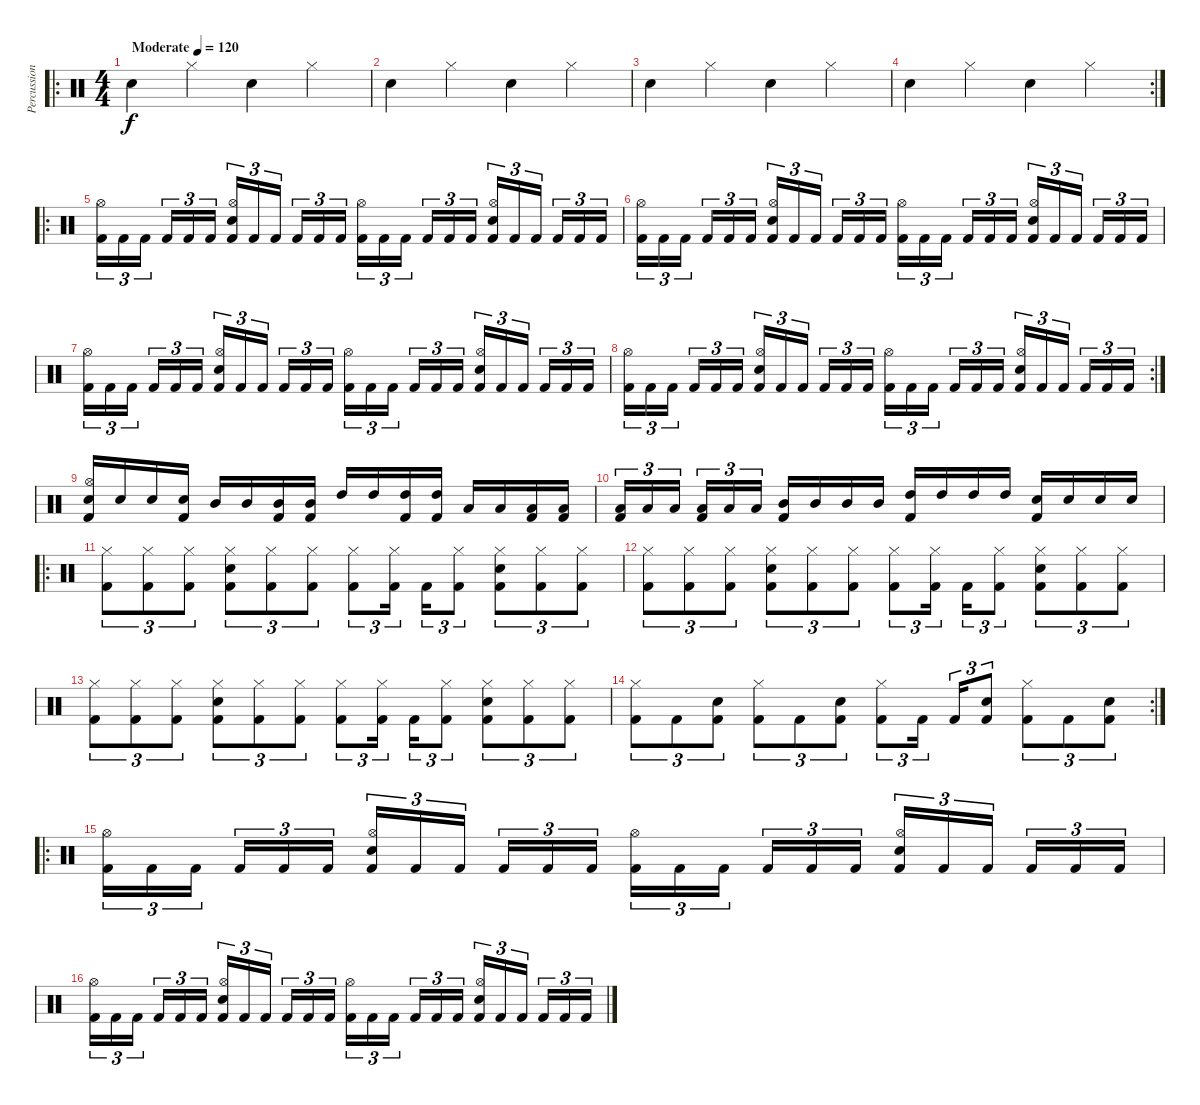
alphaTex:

\track ("Percussion" "Percussion") {instrument percussion}
\staff {score}
\articulation defaults
\ro
\ts (4 4)
\tempo (120 "Moderate")
\clef neutral
\ks c "Metronome (bell)".4{dy f} "Hi-Hat (closed)".4 "Metronome (bell)".4 "Hi-Hat (closed)".4
|
"Metronome (bell)".4 "Hi-Hat (closed)".4 "Metronome (bell)".4 "Hi-Hat (closed)".4 |
"Metronome (bell)".4 "Hi-Hat (closed)".4 "Metronome (bell)".4 "Hi-Hat (closed)".4 |
\rc 2 "Metronome (bell)".4 "Hi-Hat (closed)".4 "Metronome (bell)".4 "Hi-Hat (closed)".4
|
\ro
("Kick (hit) 2" "Hi-Hat (open)").16{tu (3 2)} "Kick (hit) 2".16{tu (3 2)} "Kick (hit) 2".16{tu (3 2) beam splitsecondary} "Kick (hit) 2".16{tu (3 2)} "Kick (hit) 2".16{tu (3 2)} "Kick (hit) 2".16{tu (3 2)} ("Kick (hit) 2" "Hi-Hat (open)" "Snare (hit) 2").16{tu (3 2)} "Kick (hit) 2".16{tu (3 2)} "Kick (hit) 2".16{tu (3 2) beam splitsecondary} "Kick (hit) 2".16{tu (3 2)} "Kick (hit) 2".16{tu (3 2)} "Kick (hit) 2".16{tu (3 2)} ("Kick (hit) 2" "Hi-Hat (open)").16{tu (3 2)} "Kick (hit) 2".16{tu (3 2)} "Kick (hit) 2".16{tu (3 2) beam splitsecondary} "Kick (hit) 2".16{tu (3 2)} "Kick (hit) 2".16{tu (3 2)} "Kick (hit) 2".16{tu (3 2)} ("Kick (hit) 2" "Hi-Hat (open)" "Snare (hit) 2").16{tu (3 2)} "Kick (hit) 2".16{tu (3 2)} "Kick (hit) 2".16{tu (3 2) beam splitsecondary} "Kick (hit) 2".16{tu (3 2)} "Kick (hit) 2".16{tu (3 2)} "Kick (hit) 2".16{tu (3 2)} |
("Kick (hit) 2" "Hi-Hat (open)").16{tu (3 2)} "Kick (hit) 2".16{tu (3 2)} "Kick (hit) 2".16{tu (3 2) beam splitsecondary} "Kick (hit) 2".16{tu (3 2)} "Kick (hit) 2".16{tu (3 2)} "Kick (hit) 2".16{tu (3 2)} ("Kick (hit) 2" "Hi-Hat (open)" "Snare (hit) 2").16{tu (3 2)} "Kick (hit) 2".16{tu (3 2)} "Kick (hit) 2".16{tu (3 2) beam splitsecondary} "Kick (hit) 2".16{tu (3 2)} "Kick (hit) 2".16{tu (3 2)} "Kick (hit) 2".16{tu (3 2)} ("Kick (hit) 2" "Hi-Hat (open)").16{tu (3 2)} "Kick (hit) 2".16{tu (3 2)} "Kick (hit) 2".16{tu (3 2) beam splitsecondary} "Kick (hit) 2".16{tu (3 2)} "Kick (hit) 2".16{tu (3 2)} "Kick (hit) 2".16{tu (3 2)} ("Kick (hit) 2" "Hi-Hat (open)" "Snare (hit) 2").16{tu (3 2)} "Kick (hit) 2".16{tu (3 2)} "Kick (hit) 2".16{tu (3 2) beam splitsecondary} "Kick (hit) 2".16{tu (3 2)} "Kick (hit) 2".16{tu (3 2)} "Kick (hit) 2".16{tu (3 2)} |
("Kick (hit) 2" "Hi-Hat (open)").16{tu (3 2)} "Kick (hit) 2".16{tu (3 2)} "Kick (hit) 2".16{tu (3 2) beam splitsecondary} "Kick (hit) 2".16{tu (3 2)} "Kick (hit) 2".16{tu (3 2)} "Kick (hit) 2".16{tu (3 2)} ("Kick (hit) 2" "Hi-Hat (open)" "Snare (hit) 2").16{tu (3 2)} "Kick (hit) 2".16{tu (3 2)} "Kick (hit) 2".16{tu (3 2) beam splitsecondary} "Kick (hit) 2".16{tu (3 2)} "Kick (hit) 2".16{tu (3 2)} "Kick (hit) 2".16{tu (3 2)} ("Kick (hit) 2" "Hi-Hat (open)").16{tu (3 2)} "Kick (hit) 2".16{tu (3 2)} "Kick (hit) 2".16{tu (3 2) beam splitsecondary} "Kick (hit) 2".16{tu (3 2)} "Kick (hit) 2".16{tu (3 2)} "Kick (hit) 2".16{tu (3 2)} ("Kick (hit) 2" "Hi-Hat (open)" "Snare (hit) 2").16{tu (3 2)} "Kick (hit) 2".16{tu (3 2)} "Kick (hit) 2".16{tu (3 2) beam splitsecondary} "Kick (hit) 2".16{tu (3 2)} "Kick (hit) 2".16{tu (3 2)} "Kick (hit) 2".16{tu (3 2)} |
\rc 2
("Kick (hit) 2" "Hi-Hat (open)").16{tu (3 2)} "Kick (hit) 2".16{tu (3 2)} "Kick (hit) 2".16{tu (3 2) beam splitsecondary} "Kick (hit) 2".16{tu (3 2)} "Kick (hit) 2".16{tu (3 2)} "Kick (hit) 2".16{tu (3 2)} ("Kick (hit) 2" "Hi-Hat (open)" "Snare (hit) 2").16{tu (3 2)} "Kick (hit) 2".16{tu (3 2)} "Kick (hit) 2".16{tu (3 2) beam splitsecondary} "Kick (hit) 2".16{tu (3 2)} "Kick (hit) 2".16{tu (3 2)} "Kick (hit) 2".16{tu (3 2)} ("Kick (hit) 2" "Hi-Hat (open)").16{tu (3 2)} "Kick (hit) 2".16{tu (3 2)} "Kick (hit) 2".16{tu (3 2) beam splitsecondary} "Kick (hit) 2".16{tu (3 2)} "Kick (hit) 2".16{tu (3 2)} "Kick (hit) 2".16{tu (3 2)} ("Kick (hit) 2" "Hi-Hat (open)" "Snare (hit) 2").16{tu (3 2)} "Kick (hit) 2".16{tu (3 2)} "Kick (hit) 2".16{tu (3 2) beam splitsecondary} "Kick (hit) 2".16{tu (3 2)} "Kick (hit) 2".16{tu (3 2)} "Kick (hit) 2".16{tu (3 2)} |
("Snare (hit) 2" "Hi-Hat (open)" "Kick (hit) 2").16 "Snare (hit) 2".16 "Snare (hit) 2".16 ("Snare (hit) 2" "Kick (hit) 2").16 "Mid Tom (hit)".16 "Mid Tom (hit)".16 ("Mid Tom (hit)" "Kick (hit) 2").16 ("Mid Tom (hit)" "Kick (hit) 2").16 "High Tom (hit)".16 "High Tom (hit)".16 ("High Tom (hit)" "Kick (hit) 2").16 ("High Tom (hit)" "Kick (hit) 2").16 "Low Floor Tom (hit)".16 "Low Floor Tom (hit)".16 ("Low Floor Tom (hit)" "Kick (hit) 2").16 ("Low Floor Tom (hit)" "Kick (hit) 2").16 |
("Low Floor Tom (hit)" "Kick (hit) 2").16{tu (3 2)} "Low Floor Tom (hit)".16{tu (3 2)} "Low Floor Tom (hit)".16{tu (3 2) beam splitsecondary} ("Low Floor Tom (hit)" "Kick (hit) 2").16{tu (3 2)} "Low Floor Tom (hit)".16{tu (3 2)} "Low Floor Tom (hit)".16{tu (3 2)} ("Mid Tom (hit)" "Kick (hit) 2").16 "Mid Tom (hit)".16 "Mid Tom (hit)".16 "Mid Tom (hit)".16 ("High Tom (hit)" "Kick (hit) 2").16 "High Tom (hit)".16 "High Tom (hit)".16 "High Tom (hit)".16 ("Snare (hit) 2" "Kick (hit) 2").16 "Snare (hit) 2".16 "Snare (hit) 2".16 "Snare (hit) 2".16 |
\ro
("Kick (hit) 2" "Hi-Hat (closed)").8{tu (3 2)} ("Kick (hit) 2" "Hi-Hat (closed)").8{tu (3 2)} ("Kick (hit) 2" "Hi-Hat (closed)").8{tu (3 2)} ("Kick (hit) 2" "Snare (hit) 2" "Hi-Hat (closed)").8{tu (3 2)} ("Kick (hit) 2" "Hi-Hat (closed)").8{tu (3 2)} ("Kick (hit) 2" "Hi-Hat (closed)").8{tu (3 2)} ("Kick (hit) 2" "Hi-Hat (closed)").8{tu (3 2)} ("Kick (hit) 2" "Hi-Hat (closed)").16{tu (3 2) beam splitsecondary} "Kick (hit) 2".16{tu (3 2)} ("Kick (hit) 2" "Hi-Hat (closed)").8{tu (3 2)} ("Kick (hit) 2" "Snare (hit) 2" "Hi-Hat (closed)").8{tu (3 2)} ("Kick (hit) 2" "Hi-Hat (closed)").8{tu (3 2)} ("Kick (hit) 2" "Hi-Hat (closed)").8{tu (3 2)} |
("Kick (hit) 2" "Hi-Hat (closed)").8{tu (3 2)} ("Kick (hit) 2" "Hi-Hat (closed)").8{tu (3 2)} ("Kick (hit) 2" "Hi-Hat (closed)").8{tu (3 2)} ("Kick (hit) 2" "Hi-Hat (closed)" "Snare (hit) 2").8{tu (3 2)} ("Kick (hit) 2" "Hi-Hat (closed)").8{tu (3 2)} ("Kick (hit) 2" "Hi-Hat (closed)").8{tu (3 2)} ("Kick (hit) 2" "Hi-Hat (closed)").8{tu (3 2)} ("Kick (hit) 2" "Hi-Hat (closed)").16{tu (3 2) beam splitsecondary} "Kick (hit) 2".16{tu (3 2)} ("Kick (hit) 2" "Hi-Hat (closed)").8{tu (3 2)} ("Kick (hit) 2" "Hi-Hat (closed)" "Snare (hit) 2").8{tu (3 2)} ("Kick (hit) 2" "Hi-Hat (closed)").8{tu (3 2)} ("Kick (hit) 2" "Hi-Hat (closed)").8{tu (3 2)} |
("Kick (hit) 2" "Hi-Hat (closed)").8{tu (3 2)} ("Kick (hit) 2" "Hi-Hat (closed)").8{tu (3 2)} ("Kick (hit) 2" "Hi-Hat (closed)").8{tu (3 2)} ("Kick (hit) 2" "Snare (hit) 2" "Hi-Hat (closed)").8{tu (3 2)} ("Kick (hit) 2" "Hi-Hat (closed)").8{tu (3 2)} ("Kick (hit) 2" "Hi-Hat (closed)").8{tu (3 2)} ("Kick (hit) 2" "Hi-Hat (closed)").8{tu (3 2)} ("Kick (hit) 2" "Hi-Hat (closed)").16{tu (3 2) beam splitsecondary} "Kick (hit) 2".16{tu (3 2)} ("Kick (hit) 2" "Hi-Hat (closed)").8{tu (3 2)} ("Kick (hit) 2" "Hi-Hat (closed)" "Snare (hit) 2").8{tu (3 2)} ("Kick (hit) 2" "Hi-Hat (closed)").8{tu (3 2)} ("Kick (hit) 2" "Hi-Hat (closed)").8{tu (3 2)} |
\rc 2
("Kick (hit) 2" "Hi-Hat (closed)").8{tu (3 2)} "Kick (hit) 2".8{tu (3 2)} ("Kick (hit) 2" "Snare (hit) 2").8{tu (3 2)} ("Kick (hit) 2" "Hi-Hat (closed)").8{tu (3 2)} "Kick (hit) 2".8{tu (3 2)} ("Kick (hit) 2" "Snare (hit) 2").8{tu (3 2)} ("Kick (hit) 2" "Hi-Hat (closed)").8{tu (3 2)} "Kick (hit) 2".16{tu (3 2) beam splitsecondary} "Kick (hit) 2".16{tu (3 2)} ("Kick (hit) 2" "Snare (hit) 2").8{tu (3 2)} ("Kick (hit) 2" "Hi-Hat (closed)").8{tu (3 2)} "Kick (hit) 2".8{tu (3 2)} ("Kick (hit) 2" "Snare (hit) 2").8{tu (3 2)} |
\ro
("Kick (hit) 2" "Hi-Hat (open)").16{tu (3 2)} "Kick (hit) 2".16{tu (3 2)} "Kick (hit) 2".16{tu (3 2) beam splitsecondary} "Kick (hit) 2".16{tu (3 2)} "Kick (hit) 2".16{tu (3 2)} "Kick (hit) 2".16{tu (3 2)} ("Kick (hit) 2" "Hi-Hat (open)" "Snare (hit) 2").16{tu (3 2)} "Kick (hit) 2".16{tu (3 2)} "Kick (hit) 2".16{tu (3 2) beam splitsecondary} "Kick (hit) 2".16{tu (3 2)} "Kick (hit) 2".16{tu (3 2)} "Kick (hit) 2".16{tu (3 2)} ("Kick (hit) 2" "Hi-Hat (open)").16{tu (3 2)} "Kick (hit) 2".16{tu (3 2)} "Kick (hit) 2".16{tu (3 2) beam splitsecondary} "Kick (hit) 2".16{tu (3 2)} "Kick (hit) 2".16{tu (3 2)} "Kick (hit) 2".16{tu (3 2)} ("Kick (hit) 2" "Hi-Hat (open)" "Snare (hit) 2").16{tu (3 2)} "Kick (hit) 2".16{tu (3 2)} "Kick (hit) 2".16{tu (3 2) beam splitsecondary} "Kick (hit) 2".16{tu (3 2)} "Kick (hit) 2".16{tu (3 2)} "Kick (hit) 2".16{tu (3 2)} |
("Kick (hit) 2" "Hi-Hat (open)").16{tu (3 2)} "Kick (hit) 2".16{tu (3 2)} "Kick (hit) 2".16{tu (3 2) beam splitsecondary} "Kick (hit) 2".16{tu (3 2)} "Kick (hit) 2".16{tu (3 2)} "Kick (hit) 2".16{tu (3 2)} ("Kick (hit) 2" "Hi-Hat (open)" "Snare (hit) 2").16{tu (3 2)} "Kick (hit) 2".16{tu (3 2)} "Kick (hit) 2".16{tu (3 2) beam splitsecondary} "Kick (hit) 2".16{tu (3 2)} "Kick (hit) 2".16{tu (3 2)} "Kick (hit) 2".16{tu (3 2)} ("Kick (hit) 2" "Hi-Hat (open)").16{tu (3 2)} "Kick (hit) 2".16{tu (3 2)} "Kick (hit) 2".16{tu (3 2) beam splitsecondary} "Kick (hit) 2".16{tu (3 2)} "Kick (hit) 2".16{tu (3 2)} "Kick (hit) 2".16{tu (3 2)} ("Kick (hit) 2" "Hi-Hat (open)" "Snare (hit) 2").16{tu (3 2)} "Kick (hit) 2".16{tu (3 2)} "Kick (hit) 2".16{tu (3 2) beam splitsecondary} "Kick (hit) 2".16{tu (3 2)} "Kick (hit) 2".16{tu (3 2)} "Kick (hit) 2".16{tu (3 2)}
